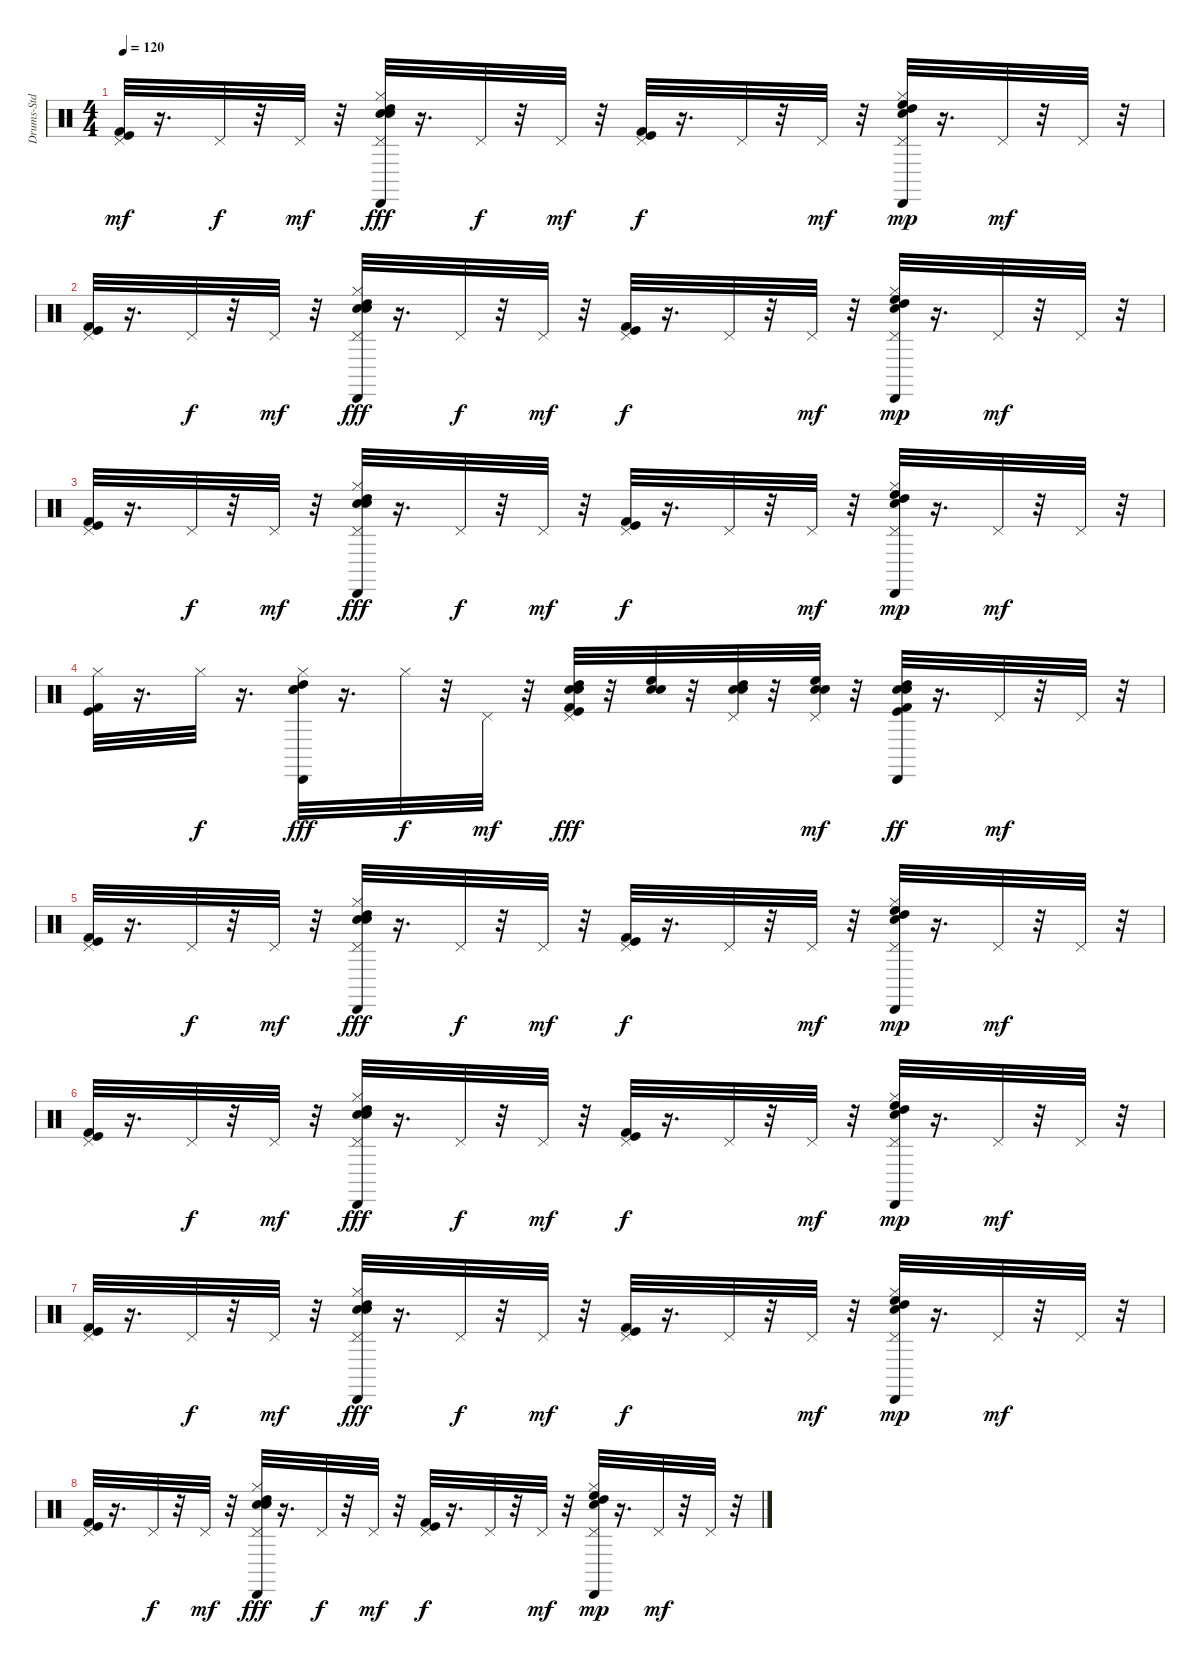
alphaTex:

\track ("Drums-Std" "Drums-Std") {instrument percussion}
\staff {score}
\articulation defaults
\ts (4 4)
\tempo 120
\clef neutral
\ks c
("Pedal Hi-Hat (hit)" "Kick (hit) 2" "Kick (hit)").32{dy mf} r.16{d} "Pedal Hi-Hat (hit)".32{dy f} r.32 "Pedal Hi-Hat (hit)".32{dy mf} r.32 ("Snare (hit) 2" "High Tom (hit)" "Cabasa (hit)" "Hi-Hat (closed)" "Pedal Hi-Hat (hit)" "Electric Snare (hit)").32{dy fff} r.16{d} "Pedal Hi-Hat (hit)".32{dy f} r.32 "Pedal Hi-Hat (hit)".32{dy mf} r.32 ("Pedal Hi-Hat (hit)" "Kick (hit) 2" "Kick (hit)").32{dy f} r.16{d} "Pedal Hi-Hat (hit)".32 r.32 "Pedal Hi-Hat (hit)".32{dy mf} r.32 ("Snare (hit) 2" "High Floor Tom (hit)" "High Tom (hit)" "Cabasa (hit)" "Hi-Hat (closed)" "Pedal Hi-Hat (hit)").32{dy mp} r.16{d} "Pedal Hi-Hat (hit)".32{dy mf} r.32 "Pedal Hi-Hat (hit)".32 r.32 |
("Pedal Hi-Hat (hit)" "Kick (hit) 2" "Kick (hit)").32 r.16{d} "Pedal Hi-Hat (hit)".32{dy f} r.32 "Pedal Hi-Hat (hit)".32{dy mf} r.32 ("Snare (hit) 2" "High Tom (hit)" "Cabasa (hit)" "Hi-Hat (closed)" "Pedal Hi-Hat (hit)" "Electric Snare (hit)").32{dy fff} r.16{d} "Pedal Hi-Hat (hit)".32{dy f} r.32 "Pedal Hi-Hat (hit)".32{dy mf} r.32 ("Pedal Hi-Hat (hit)" "Kick (hit) 2" "Kick (hit)").32{dy f} r.16{d} "Pedal Hi-Hat (hit)".32 r.32 "Pedal Hi-Hat (hit)".32{dy mf} r.32 ("Snare (hit) 2" "High Floor Tom (hit)" "High Tom (hit)" "Cabasa (hit)" "Hi-Hat (closed)" "Pedal Hi-Hat (hit)").32{dy mp} r.16{d} "Pedal Hi-Hat (hit)".32{dy mf} r.32 "Pedal Hi-Hat (hit)".32 r.32 |
("Pedal Hi-Hat (hit)" "Kick (hit) 2" "Kick (hit)").32 r.16{d} "Pedal Hi-Hat (hit)".32{dy f} r.32 "Pedal Hi-Hat (hit)".32{dy mf} r.32 ("Snare (hit) 2" "High Tom (hit)" "Cabasa (hit)" "Hi-Hat (closed)" "Pedal Hi-Hat (hit)" "Electric Snare (hit)").32{dy fff} r.16{d} "Pedal Hi-Hat (hit)".32{dy f} r.32 "Pedal Hi-Hat (hit)".32{dy mf} r.32 ("Pedal Hi-Hat (hit)" "Kick (hit) 2" "Kick (hit)").32{dy f} r.16{d} "Pedal Hi-Hat (hit)".32 r.32 "Pedal Hi-Hat (hit)".32{dy mf} r.32 ("Snare (hit) 2" "High Floor Tom (hit)" "High Tom (hit)" "Cabasa (hit)" "Hi-Hat (closed)" "Pedal Hi-Hat (hit)").32{dy mp} r.16{d} "Pedal Hi-Hat (hit)".32{dy mf} r.32 "Pedal Hi-Hat (hit)".32 r.32 |
("Hi-Hat (closed)" "Kick (hit) 2" "Kick (hit)").32 r.16{d} "Hi-Hat (closed)".32{dy f} r.16{d} ("Hi-Hat (closed)" "Snare (hit) 2" "High Tom (hit)" "Cabasa (hit)" "Electric Snare (hit)").32{dy fff} r.16{d} "Hi-Hat (closed)".32{dy f} r.32 "Pedal Hi-Hat (hit)".32{dy mf} r.32 ("High Tom (hit)" "Snare (hit) 2" "Electric Snare (hit)" "Pedal Hi-Hat (hit)" "Kick (hit) 2" "Kick (hit)").32{dy fff} r.32 ("High Floor Tom (hit)" "Snare (hit) 2" "Electric Snare (hit)").32 r.32 ("High Tom (hit)" "Snare (hit) 2" "Electric Snare (hit)" "Pedal Hi-Hat (hit)").32 r.32 ("High Floor Tom (hit)" "Snare (hit) 2" "Electric Snare (hit)" "Pedal Hi-Hat (hit)").32{dy mf} r.32 ("Kick (hit) 2" "Kick (hit)" "High Tom (hit)" "Snare (hit) 2" "Electric Snare (hit)" "Cabasa (hit)").32{dy ff} r.16{d} "Pedal Hi-Hat (hit)".32{dy mf} r.32 "Pedal Hi-Hat (hit)".32 r.32 |
("Pedal Hi-Hat (hit)" "Kick (hit) 2" "Kick (hit)").32 r.16{d} "Pedal Hi-Hat (hit)".32{dy f} r.32 "Pedal Hi-Hat (hit)".32{dy mf} r.32 ("Snare (hit) 2" "High Tom (hit)" "Cabasa (hit)" "Hi-Hat (closed)" "Pedal Hi-Hat (hit)" "Electric Snare (hit)").32{dy fff} r.16{d} "Pedal Hi-Hat (hit)".32{dy f} r.32 "Pedal Hi-Hat (hit)".32{dy mf} r.32 ("Pedal Hi-Hat (hit)" "Kick (hit) 2" "Kick (hit)").32{dy f} r.16{d} "Pedal Hi-Hat (hit)".32 r.32 "Pedal Hi-Hat (hit)".32{dy mf} r.32 ("Snare (hit) 2" "High Floor Tom (hit)" "High Tom (hit)" "Cabasa (hit)" "Hi-Hat (closed)" "Pedal Hi-Hat (hit)").32{dy mp} r.16{d} "Pedal Hi-Hat (hit)".32{dy mf} r.32 "Pedal Hi-Hat (hit)".32 r.32 |
("Pedal Hi-Hat (hit)" "Kick (hit) 2" "Kick (hit)").32 r.16{d} "Pedal Hi-Hat (hit)".32{dy f} r.32 "Pedal Hi-Hat (hit)".32{dy mf} r.32 ("Snare (hit) 2" "High Tom (hit)" "Cabasa (hit)" "Hi-Hat (closed)" "Pedal Hi-Hat (hit)" "Electric Snare (hit)").32{dy fff} r.16{d} "Pedal Hi-Hat (hit)".32{dy f} r.32 "Pedal Hi-Hat (hit)".32{dy mf} r.32 ("Pedal Hi-Hat (hit)" "Kick (hit) 2" "Kick (hit)").32{dy f} r.16{d} "Pedal Hi-Hat (hit)".32 r.32 "Pedal Hi-Hat (hit)".32{dy mf} r.32 ("Snare (hit) 2" "High Floor Tom (hit)" "High Tom (hit)" "Cabasa (hit)" "Hi-Hat (closed)" "Pedal Hi-Hat (hit)").32{dy mp} r.16{d} "Pedal Hi-Hat (hit)".32{dy mf} r.32 "Pedal Hi-Hat (hit)".32 r.32 |
("Pedal Hi-Hat (hit)" "Kick (hit) 2" "Kick (hit)").32 r.16{d} "Pedal Hi-Hat (hit)".32{dy f} r.32 "Pedal Hi-Hat (hit)".32{dy mf} r.32 ("Snare (hit) 2" "High Tom (hit)" "Cabasa (hit)" "Hi-Hat (closed)" "Pedal Hi-Hat (hit)" "Electric Snare (hit)").32{dy fff} r.16{d} "Pedal Hi-Hat (hit)".32{dy f} r.32 "Pedal Hi-Hat (hit)".32{dy mf} r.32 ("Pedal Hi-Hat (hit)" "Kick (hit) 2" "Kick (hit)").32{dy f} r.16{d} "Pedal Hi-Hat (hit)".32 r.32 "Pedal Hi-Hat (hit)".32{dy mf} r.32 ("Snare (hit) 2" "High Floor Tom (hit)" "High Tom (hit)" "Cabasa (hit)" "Hi-Hat (closed)" "Pedal Hi-Hat (hit)").32{dy mp} r.16{d} "Pedal Hi-Hat (hit)".32{dy mf} r.32 "Pedal Hi-Hat (hit)".32 r.32 |
("Pedal Hi-Hat (hit)" "Kick (hit) 2" "Kick (hit)").32 r.16{d} "Pedal Hi-Hat (hit)".32{dy f} r.32 "Pedal Hi-Hat (hit)".32{dy mf} r.32 ("Snare (hit) 2" "High Tom (hit)" "Cabasa (hit)" "Hi-Hat (closed)" "Pedal Hi-Hat (hit)" "Electric Snare (hit)").32{dy fff} r.16{d} "Pedal Hi-Hat (hit)".32{dy f} r.32 "Pedal Hi-Hat (hit)".32{dy mf} r.32 ("Pedal Hi-Hat (hit)" "Kick (hit) 2" "Kick (hit)").32{dy f} r.16{d} "Pedal Hi-Hat (hit)".32 r.32 "Pedal Hi-Hat (hit)".32{dy mf} r.32 ("Snare (hit) 2" "High Floor Tom (hit)" "High Tom (hit)" "Cabasa (hit)" "Hi-Hat (closed)" "Pedal Hi-Hat (hit)").32{dy mp} r.16{d} "Pedal Hi-Hat (hit)".32{dy mf} r.32 "Pedal Hi-Hat (hit)".32 r.32
